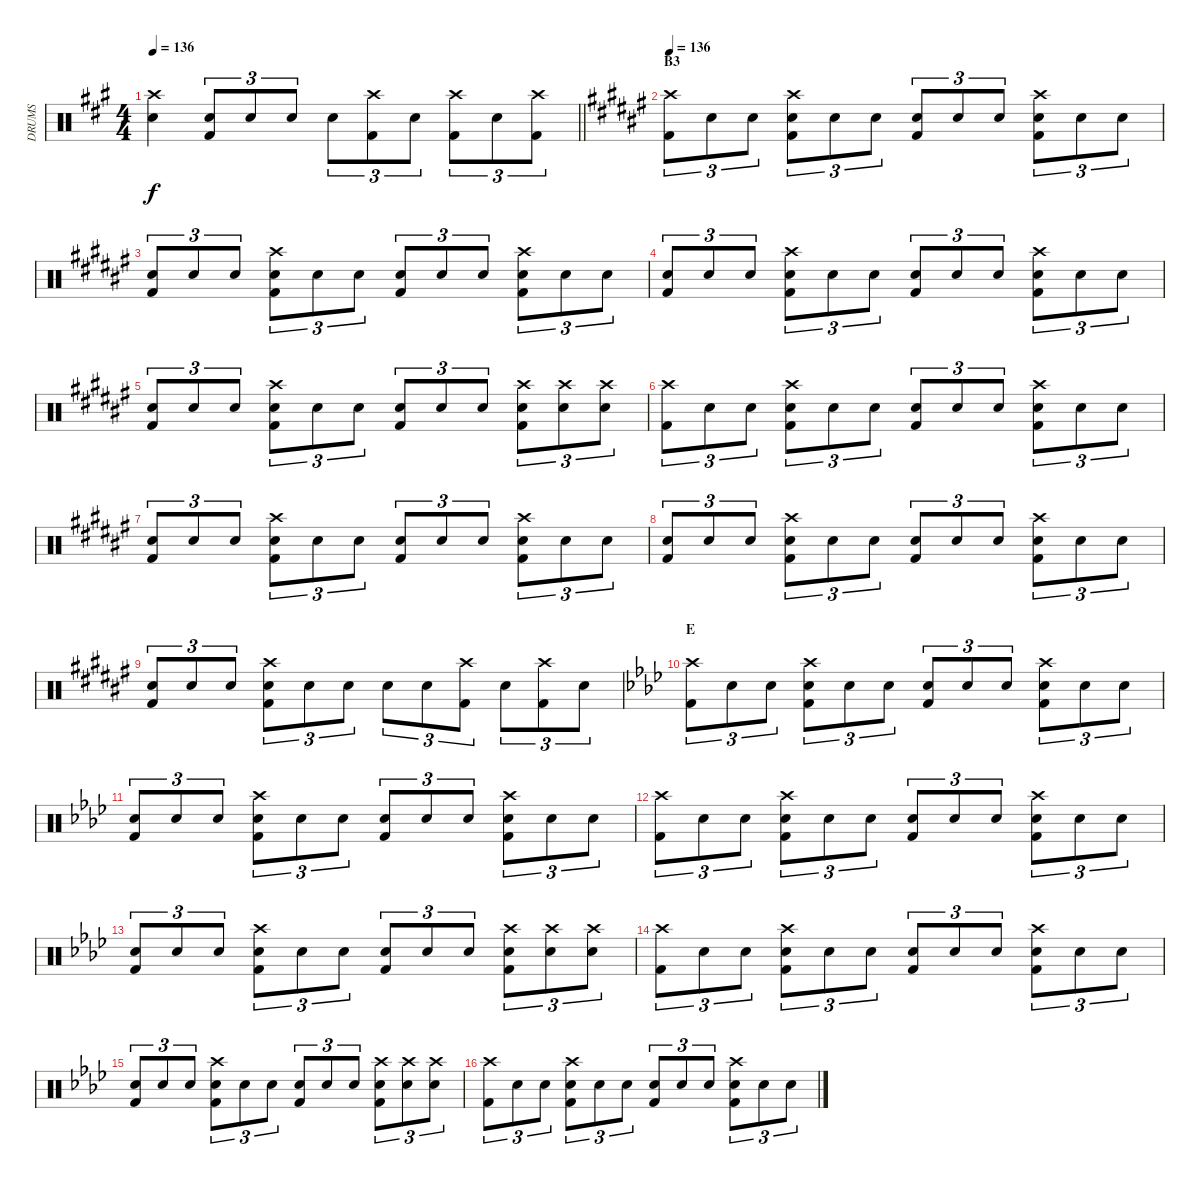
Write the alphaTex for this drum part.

\track ("DRUMS" "DRUMS") {instrument percussion}
\staff {score}
\articulation defaults
\ts (4 4)
\tempo 136
\clef neutral
\barLineRight lightlight
\ks a
("Crash high (hit)" "Snare (hit) 2").4{dy f} ("Snare (hit) 2" "Kick (hit) 2").8{tu (3 2)} "Snare (hit) 2".8{tu (3 2)} "Snare (hit) 2".8{tu (3 2)} "Snare (hit) 2".8{tu (3 2)} ("Crash high (hit)" "Kick (hit) 2").8{tu (3 2)} "Snare (hit) 2".8{tu (3 2)} ("Crash high (hit)" "Kick (hit) 2").8{tu (3 2)} "Snare (hit) 2".8{tu (3 2)} ("Crash high (hit)" "Kick (hit) 2").8{tu (3 2)} |
\section ("" "B3")
\tempo 136
\ks f#
("Crash high (hit)" "Kick (hit) 2").8{tu (3 2)} "Snare (hit) 2".8{tu (3 2)} "Snare (hit) 2".8{tu (3 2)} ("Crash high (hit)" "Kick (hit) 2" "Snare (hit) 2").8{tu (3 2)} "Snare (hit) 2".8{tu (3 2)} "Snare (hit) 2".8{tu (3 2)} ("Kick (hit) 2" "Snare (hit) 2").8{tu (3 2)} "Snare (hit) 2".8{tu (3 2)} "Snare (hit) 2".8{tu (3 2)} ("Crash high (hit)" "Kick (hit) 2" "Snare (hit) 2").8{tu (3 2)} "Snare (hit) 2".8{tu (3 2)} "Snare (hit) 2".8{tu (3 2)} |
("Snare (hit) 2" "Kick (hit) 2").8{tu (3 2)} "Snare (hit) 2".8{tu (3 2)} "Snare (hit) 2".8{tu (3 2)} ("Crash high (hit)" "Snare (hit) 2" "Kick (hit) 2").8{tu (3 2)} "Snare (hit) 2".8{tu (3 2)} "Snare (hit) 2".8{tu (3 2)} ("Snare (hit) 2" "Kick (hit) 2").8{tu (3 2)} "Snare (hit) 2".8{tu (3 2)} "Snare (hit) 2".8{tu (3 2)} ("Crash high (hit)" "Snare (hit) 2" "Kick (hit) 2").8{tu (3 2)} "Snare (hit) 2".8{tu (3 2)} "Snare (hit) 2".8{tu (3 2)} |
("Snare (hit) 2" "Kick (hit) 2").8{tu (3 2)} "Snare (hit) 2".8{tu (3 2)} "Snare (hit) 2".8{tu (3 2)} ("Crash high (hit)" "Snare (hit) 2" "Kick (hit) 2").8{tu (3 2)} "Snare (hit) 2".8{tu (3 2)} "Snare (hit) 2".8{tu (3 2)} ("Snare (hit) 2" "Kick (hit) 2").8{tu (3 2)} "Snare (hit) 2".8{tu (3 2)} "Snare (hit) 2".8{tu (3 2)} ("Crash high (hit)" "Snare (hit) 2" "Kick (hit) 2").8{tu (3 2)} "Snare (hit) 2".8{tu (3 2)} "Snare (hit) 2".8{tu (3 2)} |
("Snare (hit) 2" "Kick (hit) 2").8{tu (3 2)} "Snare (hit) 2".8{tu (3 2)} "Snare (hit) 2".8{tu (3 2)} ("Crash high (hit)" "Snare (hit) 2" "Kick (hit) 2").8{tu (3 2)} "Snare (hit) 2".8{tu (3 2)} "Snare (hit) 2".8{tu (3 2)} ("Snare (hit) 2" "Kick (hit) 2").8{tu (3 2)} "Snare (hit) 2".8{tu (3 2)} "Snare (hit) 2".8{tu (3 2)} ("Crash high (hit)" "Snare (hit) 2" "Kick (hit) 2").8{tu (3 2)} ("Crash high (hit)" "Snare (hit) 2").8{tu (3 2)} ("Crash high (hit)" "Snare (hit) 2").8{tu (3 2)} |
("Crash high (hit)" "Kick (hit) 2").8{tu (3 2)} "Snare (hit) 2".8{tu (3 2)} "Snare (hit) 2".8{tu (3 2)} ("Crash high (hit)" "Kick (hit) 2" "Snare (hit) 2").8{tu (3 2)} "Snare (hit) 2".8{tu (3 2)} "Snare (hit) 2".8{tu (3 2)} ("Kick (hit) 2" "Snare (hit) 2").8{tu (3 2)} "Snare (hit) 2".8{tu (3 2)} "Snare (hit) 2".8{tu (3 2)} ("Crash high (hit)" "Kick (hit) 2" "Snare (hit) 2").8{tu (3 2)} "Snare (hit) 2".8{tu (3 2)} "Snare (hit) 2".8{tu (3 2)} |
("Snare (hit) 2" "Kick (hit) 2").8{tu (3 2)} "Snare (hit) 2".8{tu (3 2)} "Snare (hit) 2".8{tu (3 2)} ("Crash high (hit)" "Snare (hit) 2" "Kick (hit) 2").8{tu (3 2)} "Snare (hit) 2".8{tu (3 2)} "Snare (hit) 2".8{tu (3 2)} ("Snare (hit) 2" "Kick (hit) 2").8{tu (3 2)} "Snare (hit) 2".8{tu (3 2)} "Snare (hit) 2".8{tu (3 2)} ("Crash high (hit)" "Snare (hit) 2" "Kick (hit) 2").8{tu (3 2)} "Snare (hit) 2".8{tu (3 2)} "Snare (hit) 2".8{tu (3 2)} |
("Snare (hit) 2" "Kick (hit) 2").8{tu (3 2)} "Snare (hit) 2".8{tu (3 2)} "Snare (hit) 2".8{tu (3 2)} ("Crash high (hit)" "Snare (hit) 2" "Kick (hit) 2").8{tu (3 2)} "Snare (hit) 2".8{tu (3 2)} "Snare (hit) 2".8{tu (3 2)} ("Snare (hit) 2" "Kick (hit) 2").8{tu (3 2)} "Snare (hit) 2".8{tu (3 2)} "Snare (hit) 2".8{tu (3 2)} ("Crash high (hit)" "Snare (hit) 2" "Kick (hit) 2").8{tu (3 2)} "Snare (hit) 2".8{tu (3 2)} "Snare (hit) 2".8{tu (3 2)} |
("Snare (hit) 2" "Kick (hit) 2").8{tu (3 2)} "Snare (hit) 2".8{tu (3 2)} "Snare (hit) 2".8{tu (3 2)} ("Crash high (hit)" "Snare (hit) 2" "Kick (hit) 2").8{tu (3 2)} "Snare (hit) 2".8{tu (3 2)} "Snare (hit) 2".8{tu (3 2)} "Snare (hit) 2".8{tu (3 2)} "Snare (hit) 2".8{tu (3 2)} ("Crash high (hit)" "Kick (hit) 2").8{tu (3 2)} "Snare (hit) 2".8{tu (3 2)} ("Crash high (hit)" "Kick (hit) 2").8{tu (3 2)} "Snare (hit) 2".8{tu (3 2)} |
\section ("" "E")
\ks ab
("Crash high (hit)" "Kick (hit) 2").8{tu (3 2)} "Snare (hit) 2".8{tu (3 2)} "Snare (hit) 2".8{tu (3 2)} ("Crash high (hit)" "Snare (hit) 2" "Kick (hit) 2").8{tu (3 2)} "Snare (hit) 2".8{tu (3 2)} "Snare (hit) 2".8{tu (3 2)} ("Snare (hit) 2" "Kick (hit) 2").8{tu (3 2)} "Snare (hit) 2".8{tu (3 2)} "Snare (hit) 2".8{tu (3 2)} ("Crash high (hit)" "Snare (hit) 2" "Kick (hit) 2").8{tu (3 2)} "Snare (hit) 2".8{tu (3 2)} "Snare (hit) 2".8{tu (3 2)} |
("Snare (hit) 2" "Kick (hit) 2").8{tu (3 2)} "Snare (hit) 2".8{tu (3 2)} "Snare (hit) 2".8{tu (3 2)} ("Crash high (hit)" "Snare (hit) 2" "Kick (hit) 2").8{tu (3 2)} "Snare (hit) 2".8{tu (3 2)} "Snare (hit) 2".8{tu (3 2)} ("Snare (hit) 2" "Kick (hit) 2").8{tu (3 2)} "Snare (hit) 2".8{tu (3 2)} "Snare (hit) 2".8{tu (3 2)} ("Crash high (hit)" "Snare (hit) 2" "Kick (hit) 2").8{tu (3 2)} "Snare (hit) 2".8{tu (3 2)} "Snare (hit) 2".8{tu (3 2)} |
("Crash high (hit)" "Kick (hit) 2").8{tu (3 2)} "Snare (hit) 2".8{tu (3 2)} "Snare (hit) 2".8{tu (3 2)} ("Crash high (hit)" "Snare (hit) 2" "Kick (hit) 2").8{tu (3 2)} "Snare (hit) 2".8{tu (3 2)} "Snare (hit) 2".8{tu (3 2)} ("Snare (hit) 2" "Kick (hit) 2").8{tu (3 2)} "Snare (hit) 2".8{tu (3 2)} "Snare (hit) 2".8{tu (3 2)} ("Crash high (hit)" "Snare (hit) 2" "Kick (hit) 2").8{tu (3 2)} "Snare (hit) 2".8{tu (3 2)} "Snare (hit) 2".8{tu (3 2)} |
("Snare (hit) 2" "Kick (hit) 2").8{tu (3 2)} "Snare (hit) 2".8{tu (3 2)} "Snare (hit) 2".8{tu (3 2)} ("Crash high (hit)" "Snare (hit) 2" "Kick (hit) 2").8{tu (3 2)} "Snare (hit) 2".8{tu (3 2)} "Snare (hit) 2".8{tu (3 2)} ("Snare (hit) 2" "Kick (hit) 2").8{tu (3 2)} "Snare (hit) 2".8{tu (3 2)} "Snare (hit) 2".8{tu (3 2)} ("Crash high (hit)" "Snare (hit) 2" "Kick (hit) 2").8{tu (3 2)} ("Crash high (hit)" "Snare (hit) 2").8{tu (3 2)} ("Crash high (hit)" "Snare (hit) 2").8{tu (3 2)} |
("Crash high (hit)" "Kick (hit) 2").8{tu (3 2)} "Snare (hit) 2".8{tu (3 2)} "Snare (hit) 2".8{tu (3 2)} ("Crash high (hit)" "Snare (hit) 2" "Kick (hit) 2").8{tu (3 2)} "Snare (hit) 2".8{tu (3 2)} "Snare (hit) 2".8{tu (3 2)} ("Snare (hit) 2" "Kick (hit) 2").8{tu (3 2)} "Snare (hit) 2".8{tu (3 2)} "Snare (hit) 2".8{tu (3 2)} ("Crash high (hit)" "Snare (hit) 2" "Kick (hit) 2").8{tu (3 2)} "Snare (hit) 2".8{tu (3 2)} "Snare (hit) 2".8{tu (3 2)} |
("Snare (hit) 2" "Kick (hit) 2").8{tu (3 2)} "Snare (hit) 2".8{tu (3 2)} "Snare (hit) 2".8{tu (3 2)} ("Crash high (hit)" "Snare (hit) 2" "Kick (hit) 2").8{tu (3 2)} "Snare (hit) 2".8{tu (3 2)} "Snare (hit) 2".8{tu (3 2)} ("Snare (hit) 2" "Kick (hit) 2").8{tu (3 2)} "Snare (hit) 2".8{tu (3 2)} "Snare (hit) 2".8{tu (3 2)} ("Crash high (hit)" "Snare (hit) 2" "Kick (hit) 2").8{tu (3 2)} ("Crash high (hit)" "Snare (hit) 2").8{tu (3 2)} ("Crash high (hit)" "Snare (hit) 2").8{tu (3 2)} |
("Crash high (hit)" "Kick (hit) 2").8{tu (3 2)} "Snare (hit) 2".8{tu (3 2)} "Snare (hit) 2".8{tu (3 2)} ("Crash high (hit)" "Snare (hit) 2" "Kick (hit) 2").8{tu (3 2)} "Snare (hit) 2".8{tu (3 2)} "Snare (hit) 2".8{tu (3 2)} ("Snare (hit) 2" "Kick (hit) 2").8{tu (3 2)} "Snare (hit) 2".8{tu (3 2)} "Snare (hit) 2".8{tu (3 2)} ("Crash high (hit)" "Snare (hit) 2" "Kick (hit) 2").8{tu (3 2)} "Snare (hit) 2".8{tu (3 2)} "Snare (hit) 2".8{tu (3 2)}
